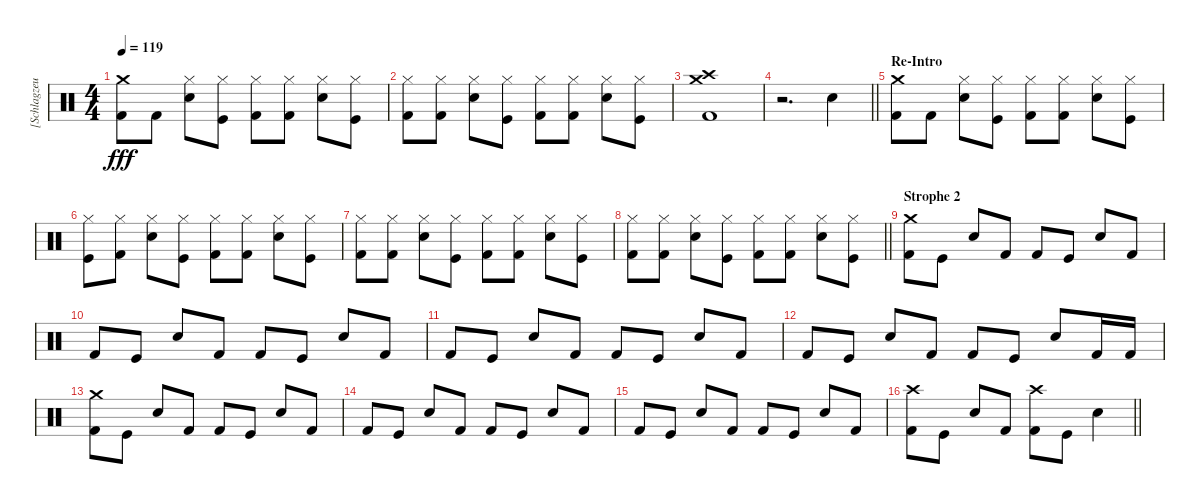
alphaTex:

\track ("[Schlagzeug]" "[Schlagzeu") {instrument percussion}
\staff {score}
\articulation defaults
\ts (4 4)
\tempo 119
\clef neutral
\ks c
("Crash medium (hit)" "Kick (hit) 2").8{dy fff} "Kick (hit) 2".8 ("Hi-Hat (closed)" "Electric Snare (hit)").8 ("Hi-Hat (closed)" "Kick (hit)").8 ("Hi-Hat (closed)" "Kick (hit) 2").8 ("Hi-Hat (closed)" "Kick (hit) 2").8 ("Hi-Hat (closed)" "Electric Snare (hit)").8 ("Hi-Hat (closed)" "Kick (hit)").8 |
("Hi-Hat (closed)" "Kick (hit) 2").8 ("Hi-Hat (closed)" "Kick (hit) 2").8 ("Hi-Hat (closed)" "Electric Snare (hit)").8 ("Hi-Hat (closed)" "Kick (hit)").8 ("Hi-Hat (closed)" "Kick (hit) 2").8 ("Hi-Hat (closed)" "Kick (hit) 2").8 ("Hi-Hat (closed)" "Electric Snare (hit)").8 ("Hi-Hat (closed)" "Kick (hit)").8 |
("Crash medium (hit)" "Crash high (hit)" "Kick (hit) 2").1 |
\barLineRight lightlight
r.2{d} "Electric Snare (hit)".4 |
\section ("" "Re-Intro")
("Crash medium (hit)" "Kick (hit) 2").8 "Kick (hit) 2".8 ("Hi-Hat (closed)" "Electric Snare (hit)").8 ("Hi-Hat (closed)" "Kick (hit)").8 ("Hi-Hat (closed)" "Kick (hit) 2").8 ("Hi-Hat (closed)" "Kick (hit) 2").8 ("Hi-Hat (closed)" "Electric Snare (hit)").8 ("Hi-Hat (closed)" "Kick (hit)").8 |
("Hi-Hat (closed)" "Kick (hit)").8 ("Hi-Hat (closed)" "Kick (hit) 2").8 ("Hi-Hat (closed)" "Electric Snare (hit)").8 ("Hi-Hat (closed)" "Kick (hit)").8 ("Hi-Hat (closed)" "Kick (hit) 2").8 ("Hi-Hat (closed)" "Kick (hit) 2").8 ("Hi-Hat (closed)" "Electric Snare (hit)").8 ("Hi-Hat (closed)" "Kick (hit)").8 |
("Hi-Hat (closed)" "Kick (hit) 2").8 ("Hi-Hat (closed)" "Kick (hit) 2").8 ("Hi-Hat (closed)" "Electric Snare (hit)").8 ("Hi-Hat (closed)" "Kick (hit)").8 ("Hi-Hat (closed)" "Kick (hit) 2").8 ("Hi-Hat (closed)" "Kick (hit) 2").8 ("Hi-Hat (closed)" "Electric Snare (hit)").8 ("Hi-Hat (closed)" "Kick (hit)").8 |
\barLineRight lightlight
("Hi-Hat (closed)" "Kick (hit) 2").8 ("Hi-Hat (closed)" "Kick (hit) 2").8 ("Hi-Hat (closed)" "Electric Snare (hit)").8 ("Hi-Hat (closed)" "Kick (hit)").8 ("Hi-Hat (closed)" "Kick (hit) 2").8 ("Hi-Hat (closed)" "Kick (hit) 2").8 ("Hi-Hat (closed)" "Electric Snare (hit)").8 ("Hi-Hat (closed)" "Kick (hit)").8 |
\section ("" "Strophe 2")
("Crash medium (hit)" "Kick (hit) 2").8 "Kick (hit)".8 "Electric Snare (hit)".8 "Kick (hit) 2".8 "Kick (hit) 2".8 "Kick (hit)".8 "Electric Snare (hit)".8 "Kick (hit) 2".8 |
"Kick (hit) 2".8 "Kick (hit)".8 "Electric Snare (hit)".8 "Kick (hit) 2".8 "Kick (hit) 2".8 "Kick (hit)".8 "Electric Snare (hit)".8 "Kick (hit) 2".8 |
"Kick (hit) 2".8 "Kick (hit)".8 "Electric Snare (hit)".8 "Kick (hit) 2".8 "Kick (hit) 2".8 "Kick (hit)".8 "Electric Snare (hit)".8 "Kick (hit) 2".8 |
"Kick (hit) 2".8 "Kick (hit)".8 "Electric Snare (hit)".8 "Kick (hit) 2".8 "Kick (hit) 2".8 "Kick (hit)".8 "Electric Snare (hit)".8 "Kick (hit) 2".16 "Kick (hit) 2".16 |
("Crash medium (hit)" "Kick (hit) 2").8 "Kick (hit)".8 "Electric Snare (hit)".8 "Kick (hit) 2".8 "Kick (hit) 2".8 "Kick (hit)".8 "Electric Snare (hit)".8 "Kick (hit) 2".8 |
"Kick (hit) 2".8 "Kick (hit)".8 "Electric Snare (hit)".8 "Kick (hit) 2".8 "Kick (hit) 2".8 "Kick (hit)".8 "Electric Snare (hit)".8 "Kick (hit) 2".8 |
"Kick (hit) 2".8 "Kick (hit)".8 "Electric Snare (hit)".8 "Kick (hit) 2".8 "Kick (hit) 2".8 "Kick (hit)".8 "Electric Snare (hit)".8 "Kick (hit) 2".8 |
\barLineRight lightlight
("Crash high (hit)" "Kick (hit) 2").8 "Kick (hit)".8 "Electric Snare (hit)".8 "Kick (hit) 2".8 ("Crash high (hit)" "Kick (hit) 2").8 "Kick (hit)".8 "Electric Snare (hit)".4
